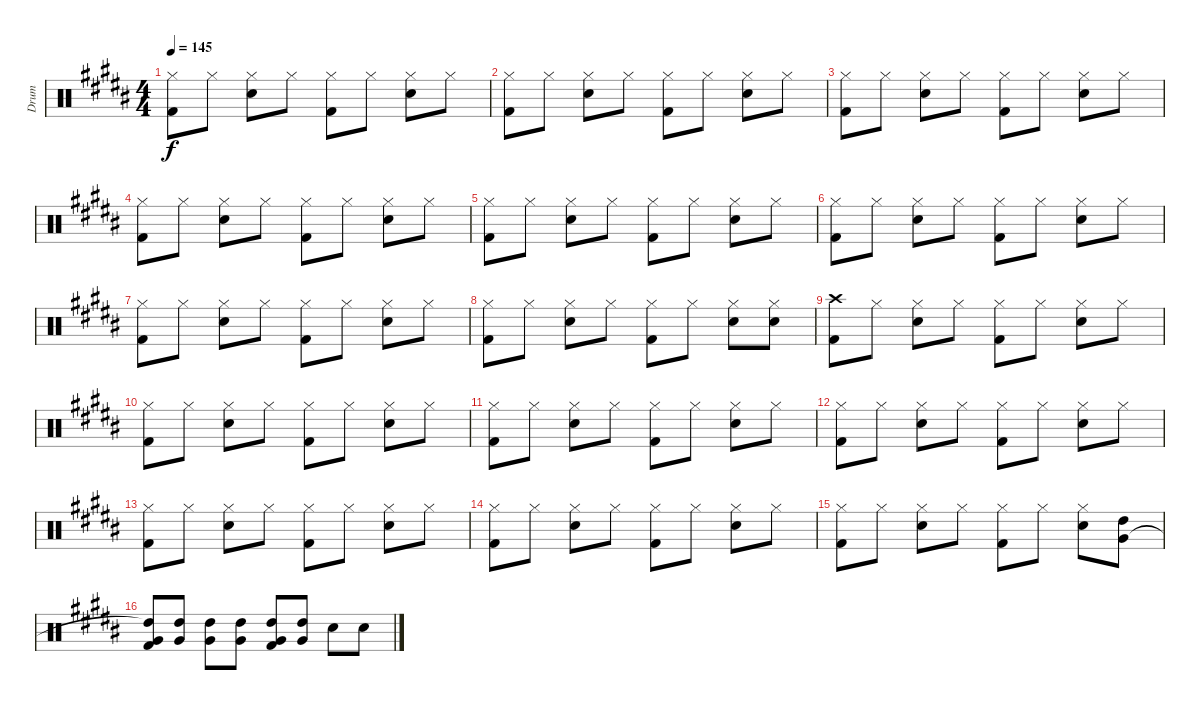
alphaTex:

\track ("Drum" "Drum") {instrument percussion}
\staff {score}
\articulation defaults
\ts (4 4)
\tempo 145
\clef neutral
\ks b
("Hi-Hat (closed)" "Kick (hit) 2").8{dy f} "Hi-Hat (closed)".8 ("Hi-Hat (closed)" "Electric Snare (hit)").8 "Hi-Hat (closed)".8 ("Hi-Hat (closed)" "Kick (hit) 2").8 "Hi-Hat (closed)".8 ("Hi-Hat (closed)" "Electric Snare (hit)").8 "Hi-Hat (closed)".8 |
("Hi-Hat (closed)" "Kick (hit) 2").8 "Hi-Hat (closed)".8 ("Hi-Hat (closed)" "Electric Snare (hit)").8 "Hi-Hat (closed)".8 ("Hi-Hat (closed)" "Kick (hit) 2").8 "Hi-Hat (closed)".8 ("Hi-Hat (closed)" "Electric Snare (hit)").8 "Hi-Hat (closed)".8 |
("Hi-Hat (closed)" "Kick (hit) 2").8 "Hi-Hat (closed)".8 ("Hi-Hat (closed)" "Electric Snare (hit)").8 "Hi-Hat (closed)".8 ("Hi-Hat (closed)" "Kick (hit) 2").8 "Hi-Hat (closed)".8 ("Hi-Hat (closed)" "Electric Snare (hit)").8 "Hi-Hat (closed)".8 |
("Hi-Hat (closed)" "Kick (hit) 2").8 "Hi-Hat (closed)".8 ("Hi-Hat (closed)" "Electric Snare (hit)").8 "Hi-Hat (closed)".8 ("Hi-Hat (closed)" "Kick (hit) 2").8 "Hi-Hat (closed)".8 ("Hi-Hat (closed)" "Electric Snare (hit)").8 "Hi-Hat (closed)".8 |
("Hi-Hat (closed)" "Kick (hit) 2").8 "Hi-Hat (closed)".8 ("Hi-Hat (closed)" "Electric Snare (hit)").8 "Hi-Hat (closed)".8 ("Hi-Hat (closed)" "Kick (hit) 2").8 "Hi-Hat (closed)".8 ("Hi-Hat (closed)" "Electric Snare (hit)").8 "Hi-Hat (closed)".8 |
("Hi-Hat (closed)" "Kick (hit) 2").8 "Hi-Hat (closed)".8 ("Hi-Hat (closed)" "Electric Snare (hit)").8 "Hi-Hat (closed)".8 ("Hi-Hat (closed)" "Kick (hit) 2").8 "Hi-Hat (closed)".8 ("Hi-Hat (closed)" "Electric Snare (hit)").8 "Hi-Hat (closed)".8 |
("Hi-Hat (closed)" "Kick (hit) 2").8 "Hi-Hat (closed)".8 ("Hi-Hat (closed)" "Electric Snare (hit)").8 "Hi-Hat (closed)".8 ("Hi-Hat (closed)" "Kick (hit) 2").8 "Hi-Hat (closed)".8 ("Hi-Hat (closed)" "Electric Snare (hit)").8 "Hi-Hat (closed)".8 |
("Hi-Hat (closed)" "Kick (hit) 2").8 "Hi-Hat (closed)".8 ("Hi-Hat (closed)" "Electric Snare (hit)").8 "Hi-Hat (closed)".8 ("Hi-Hat (closed)" "Kick (hit) 2").8 "Hi-Hat (closed)".8 ("Hi-Hat (closed)" "Electric Snare (hit)").8 ("Hi-Hat (closed)" "Electric Snare (hit)").8 |
("Kick (hit) 2" "Crash high (hit)").8 "Hi-Hat (closed)".8 ("Hi-Hat (closed)" "Electric Snare (hit)").8 "Hi-Hat (closed)".8 ("Hi-Hat (closed)" "Kick (hit) 2").8 "Hi-Hat (closed)".8 ("Hi-Hat (closed)" "Electric Snare (hit)").8 "Hi-Hat (closed)".8 |
("Hi-Hat (closed)" "Kick (hit) 2").8 "Hi-Hat (closed)".8 ("Hi-Hat (closed)" "Electric Snare (hit)").8 "Hi-Hat (closed)".8 ("Hi-Hat (closed)" "Kick (hit) 2").8 "Hi-Hat (closed)".8 ("Hi-Hat (closed)" "Electric Snare (hit)").8 "Hi-Hat (closed)".8 |
("Hi-Hat (closed)" "Kick (hit) 2").8 "Hi-Hat (closed)".8 ("Hi-Hat (closed)" "Electric Snare (hit)").8 "Hi-Hat (closed)".8 ("Hi-Hat (closed)" "Kick (hit) 2").8 "Hi-Hat (closed)".8 ("Hi-Hat (closed)" "Electric Snare (hit)").8 "Hi-Hat (closed)".8 |
("Hi-Hat (closed)" "Kick (hit) 2").8 "Hi-Hat (closed)".8 ("Hi-Hat (closed)" "Electric Snare (hit)").8 "Hi-Hat (closed)".8 ("Hi-Hat (closed)" "Kick (hit) 2").8 "Hi-Hat (closed)".8 ("Hi-Hat (closed)" "Electric Snare (hit)").8 "Hi-Hat (closed)".8 |
("Hi-Hat (closed)" "Kick (hit) 2").8 "Hi-Hat (closed)".8 ("Hi-Hat (closed)" "Electric Snare (hit)").8 "Hi-Hat (closed)".8 ("Hi-Hat (closed)" "Kick (hit) 2").8 "Hi-Hat (closed)".8 ("Hi-Hat (closed)" "Electric Snare (hit)").8 "Hi-Hat (closed)".8 |
("Hi-Hat (closed)" "Kick (hit) 2").8 "Hi-Hat (closed)".8 ("Hi-Hat (closed)" "Electric Snare (hit)").8 "Hi-Hat (closed)".8 ("Hi-Hat (closed)" "Kick (hit) 2").8 "Hi-Hat (closed)".8 ("Hi-Hat (closed)" "Electric Snare (hit)").8 "Hi-Hat (closed)".8 |
("Hi-Hat (closed)" "Kick (hit) 2").8 "Hi-Hat (closed)".8 ("Hi-Hat (closed)" "Electric Snare (hit)").8 "Hi-Hat (closed)".8 ("Hi-Hat (closed)" "Kick (hit) 2").8 "Hi-Hat (closed)".8 ("Hi-Hat (closed)" "Electric Snare (hit)").8 ("High Tom (hit)" "Very Low Tom (hit)").8 |
("Kick (hit) 2" "High Tom (hit)"{t} "Very Low Tom (hit)").8 ("High Tom (hit)" "Very Low Tom (hit)").8 ("High Tom (hit)" "Very Low Tom (hit)").8 ("High Tom (hit)" "Very Low Tom (hit)").8 ("Kick (hit) 2" "High Tom (hit)" "Very Low Tom (hit)").8 ("High Tom (hit)" "Very Low Tom (hit)").8 "Electric Snare (hit)".8 "Electric Snare (hit)".8
